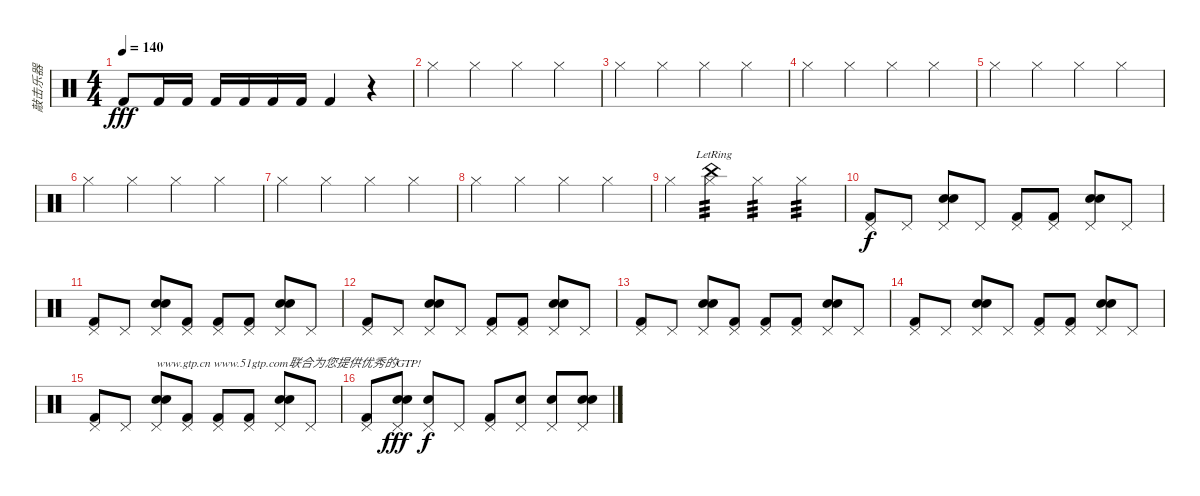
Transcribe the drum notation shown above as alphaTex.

\track ("敲击乐器" "敲击乐器") {instrument percussion}
\staff {score}
\articulation defaults
\ts (4 4)
\tempo 140
\clef neutral
\ks c "Kick (hit) 2".8{dy fff} "Kick (hit) 2".16 "Kick (hit) 2".16 "Kick (hit) 2".16 "Kick (hit) 2".16 "Kick (hit) 2".16 "Kick (hit) 2".16 "Kick (hit) 2".4
r.4 |
"Hi-Hat (closed)".4 "Hi-Hat (closed)".4 "Hi-Hat (closed)".4 "Hi-Hat (closed)".4 |
"Hi-Hat (closed)".4 "Hi-Hat (closed)".4 "Hi-Hat (closed)".4 "Hi-Hat (closed)".4 |
"Hi-Hat (closed)".4 "Hi-Hat (closed)".4 "Hi-Hat (closed)".4 "Hi-Hat (closed)".4 |
"Hi-Hat (closed)".4 "Hi-Hat (closed)".4 "Hi-Hat (closed)".4 "Hi-Hat (closed)".4 |
"Hi-Hat (closed)".4 "Hi-Hat (closed)".4 "Hi-Hat (closed)".4 "Hi-Hat (closed)".4 |
"Hi-Hat (closed)".4 "Hi-Hat (closed)".4 "Hi-Hat (closed)".4 "Hi-Hat (closed)".4 |
"Hi-Hat (closed)".4 "Hi-Hat (closed)".4 "Hi-Hat (closed)".4 "Hi-Hat (closed)".4 |
"Hi-Hat (closed)".4 ("China (hit)"{lr} "Hi-Hat (closed)").4{tp 3} "Hi-Hat (closed)".4{tp 3} "Hi-Hat (closed)".4{tp 3} |
("Kick (hit) 2" "Pedal Hi-Hat (hit)").8{dy f} "Pedal Hi-Hat (hit)".8 ("Snare (hit) 2" "Electric Snare (hit)" "Pedal Hi-Hat (hit)").8 "Pedal Hi-Hat (hit)".8 ("Kick (hit) 2" "Pedal Hi-Hat (hit)").8 ("Kick (hit) 2" "Pedal Hi-Hat (hit)").8 ("Snare (hit) 2" "Electric Snare (hit)" "Pedal Hi-Hat (hit)").8 "Pedal Hi-Hat (hit)".8 |
("Kick (hit) 2" "Pedal Hi-Hat (hit)").8 "Pedal Hi-Hat (hit)".8 ("Snare (hit) 2" "Electric Snare (hit)" "Pedal Hi-Hat (hit)").8 ("Kick (hit) 2" "Pedal Hi-Hat (hit)").8 ("Kick (hit) 2" "Pedal Hi-Hat (hit)").8 ("Kick (hit) 2" "Pedal Hi-Hat (hit)").8 ("Snare (hit) 2" "Electric Snare (hit)" "Pedal Hi-Hat (hit)").8 "Pedal Hi-Hat (hit)".8 |
("Kick (hit) 2" "Pedal Hi-Hat (hit)").8 "Pedal Hi-Hat (hit)".8 ("Snare (hit) 2" "Electric Snare (hit)" "Pedal Hi-Hat (hit)").8 "Pedal Hi-Hat (hit)".8 ("Kick (hit) 2" "Pedal Hi-Hat (hit)").8 ("Kick (hit) 2" "Pedal Hi-Hat (hit)").8 ("Snare (hit) 2" "Electric Snare (hit)" "Pedal Hi-Hat (hit)").8 "Pedal Hi-Hat (hit)".8 |
("Kick (hit) 2" "Pedal Hi-Hat (hit)").8 "Pedal Hi-Hat (hit)".8 ("Snare (hit) 2" "Electric Snare (hit)" "Pedal Hi-Hat (hit)").8 ("Kick (hit) 2" "Pedal Hi-Hat (hit)").8 ("Kick (hit) 2" "Pedal Hi-Hat (hit)").8 ("Kick (hit) 2" "Pedal Hi-Hat (hit)").8 ("Snare (hit) 2" "Electric Snare (hit)" "Pedal Hi-Hat (hit)").8 "Pedal Hi-Hat (hit)".8 |
("Kick (hit) 2" "Pedal Hi-Hat (hit)").8 "Pedal Hi-Hat (hit)".8 ("Snare (hit) 2" "Electric Snare (hit)" "Pedal Hi-Hat (hit)").8 "Pedal Hi-Hat (hit)".8 ("Kick (hit) 2" "Pedal Hi-Hat (hit)").8 ("Kick (hit) 2" "Pedal Hi-Hat (hit)").8 ("Snare (hit) 2" "Electric Snare (hit)" "Pedal Hi-Hat (hit)").8 "Pedal Hi-Hat (hit)".8 |
("Kick (hit) 2" "Pedal Hi-Hat (hit)").8 "Pedal Hi-Hat (hit)".8 ("Snare (hit) 2" "Electric Snare (hit)" "Pedal Hi-Hat (hit)").8{txt "www.gtp.cn www.51gtp.com联合为您提供优秀的GTP!"} ("Kick (hit) 2" "Pedal Hi-Hat (hit)").8 ("Kick (hit) 2" "Pedal Hi-Hat (hit)").8 ("Kick (hit) 2" "Pedal Hi-Hat (hit)").8 ("Snare (hit) 2" "Electric Snare (hit)" "Pedal Hi-Hat (hit)").8 "Pedal Hi-Hat (hit)".8 |
("Kick (hit) 2" "Pedal Hi-Hat (hit)").8 ("Snare (hit) 2" "Electric Snare (hit)" "Pedal Hi-Hat (hit)").8{dy fff} ("Electric Snare (hit)" "Pedal Hi-Hat (hit)").8{dy f} "Pedal Hi-Hat (hit)".8 ("Kick (hit) 2" "Pedal Hi-Hat (hit)").8 ("Electric Snare (hit)" "Pedal Hi-Hat (hit)").8 ("Electric Snare (hit)" "Pedal Hi-Hat (hit)").8 ("Snare (hit) 2" "Electric Snare (hit)" "Pedal Hi-Hat (hit)").8
